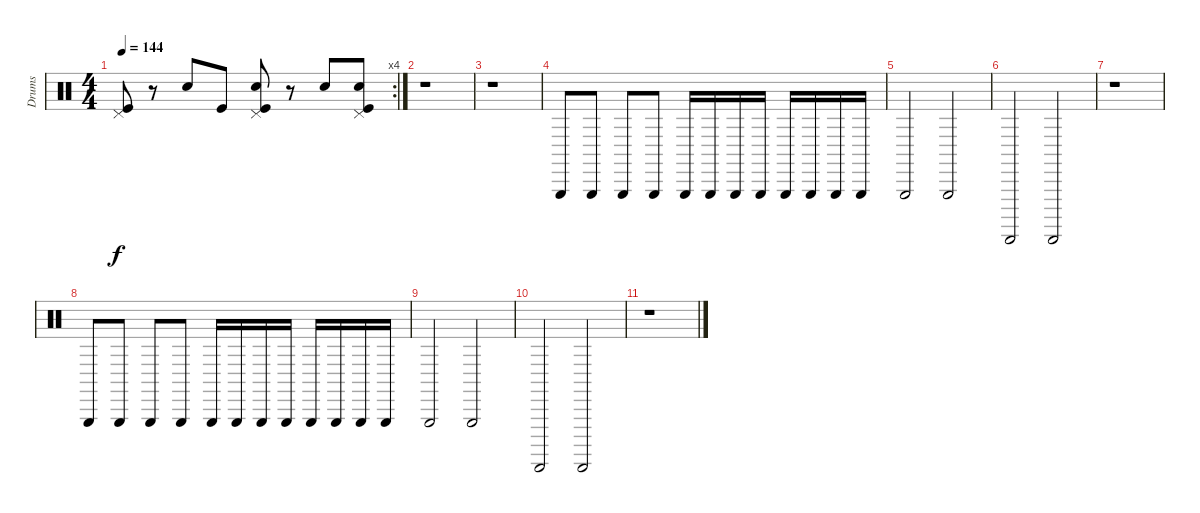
\track ("Drums" "Drums") {instrument percussion}
\staff {score}
\articulation defaults
\rc 4
\ts (4 4)
\tempo 144
\clef neutral
\ks c
("Pedal Hi-Hat (hit)" "Kick (hit)").8{dy f} r.8 "Snare (hit) 2".8 "Kick (hit)".8 ("Pedal Hi-Hat (hit)" "Snare (hit) 2" "Kick (hit)").8 r.8 "Snare (hit) 2".8 ("Pedal Hi-Hat (hit)" "Snare (hit) 2" "Kick (hit)").8 |
r.1 |
r.1 |
"Triangle (hit)".8 "Triangle (hit)".8 "Triangle (hit)".8 "Triangle (hit)".8 "Triangle (hit)".16 "Triangle (hit)".16 "Triangle (hit)".16 "Triangle (hit)".16 "Triangle (hit)".16 "Triangle (hit)".16 "Triangle (hit)".16 "Triangle (hit)".16 |
"Triangle (hit)".2 "Triangle (hit)".2 |
"Guiro (scrap-return)".2 "Guiro (scrap-return)".2 |
r.1 |
"Triangle (hit)".8 "Triangle (hit)".8 "Triangle (hit)".8 "Triangle (hit)".8 "Triangle (hit)".16 "Triangle (hit)".16 "Triangle (hit)".16 "Triangle (hit)".16 "Triangle (hit)".16 "Triangle (hit)".16 "Triangle (hit)".16 "Triangle (hit)".16 |
"Triangle (hit)".2 "Triangle (hit)".2 |
"Guiro (scrap-return)".2 "Guiro (scrap-return)".2 |
r.1
